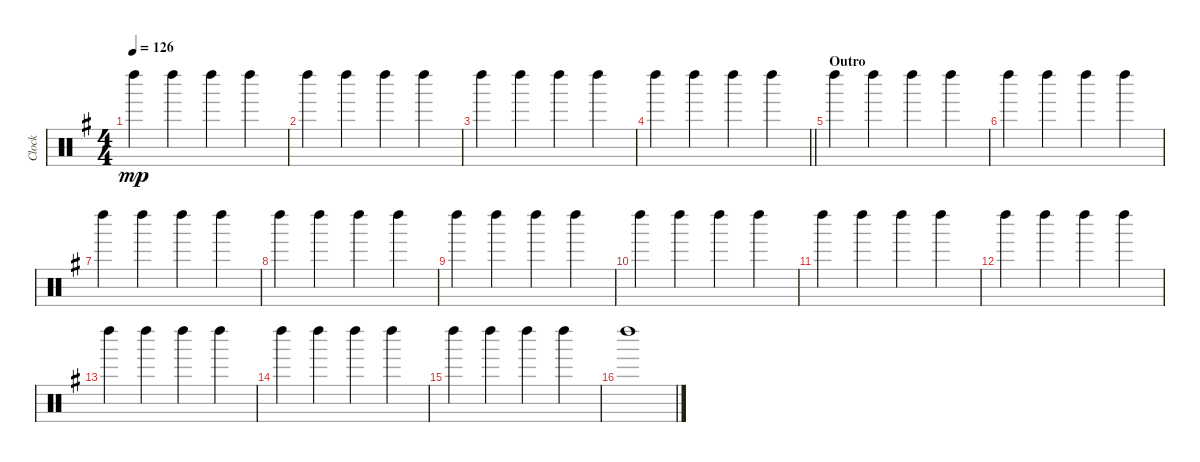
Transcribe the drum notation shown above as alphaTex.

\track ("Clock" "Clock") {instrument percussion}
\staff {score}
\articulation defaults
\ts (4 4)
\tempo 126
\clef neutral
\ks eminor "Left Maraca (hit)".4{dy mp} "Left Maraca (hit)".4 "Left Maraca (hit)".4 "Left Maraca (hit)".4
|
"Left Maraca (hit)".4 "Left Maraca (hit)".4 "Left Maraca (hit)".4 "Left Maraca (hit)".4 |
"Left Maraca (hit)".4 "Left Maraca (hit)".4 "Left Maraca (hit)".4 "Left Maraca (hit)".4 |
\barLineRight lightlight "Left Maraca (hit)".4 "Left Maraca (hit)".4 "Left Maraca (hit)".4 "Left Maraca (hit)".4
|
\section ("" "Outro")
"Left Maraca (hit)".4 "Left Maraca (hit)".4 "Left Maraca (hit)".4 "Left Maraca (hit)".4 |
"Left Maraca (hit)".4 "Left Maraca (hit)".4 "Left Maraca (hit)".4 "Left Maraca (hit)".4 |
"Left Maraca (hit)".4 "Left Maraca (hit)".4 "Left Maraca (hit)".4 "Left Maraca (hit)".4 |
"Left Maraca (hit)".4 "Left Maraca (hit)".4 "Left Maraca (hit)".4 "Left Maraca (hit)".4 |
"Left Maraca (hit)".4 "Left Maraca (hit)".4 "Left Maraca (hit)".4 "Left Maraca (hit)".4 |
"Left Maraca (hit)".4 "Left Maraca (hit)".4 "Left Maraca (hit)".4 "Left Maraca (hit)".4 |
"Left Maraca (hit)".4 "Left Maraca (hit)".4 "Left Maraca (hit)".4 "Left Maraca (hit)".4 |
"Left Maraca (hit)".4 "Left Maraca (hit)".4 "Left Maraca (hit)".4 "Left Maraca (hit)".4 |
"Left Maraca (hit)".4 "Left Maraca (hit)".4 "Left Maraca (hit)".4 "Left Maraca (hit)".4 |
"Left Maraca (hit)".4 "Left Maraca (hit)".4 "Left Maraca (hit)".4 "Left Maraca (hit)".4 |
"Left Maraca (hit)".4 "Left Maraca (hit)".4 "Left Maraca (hit)".4 "Left Maraca (hit)".4 |
"Left Maraca (hit)".1
